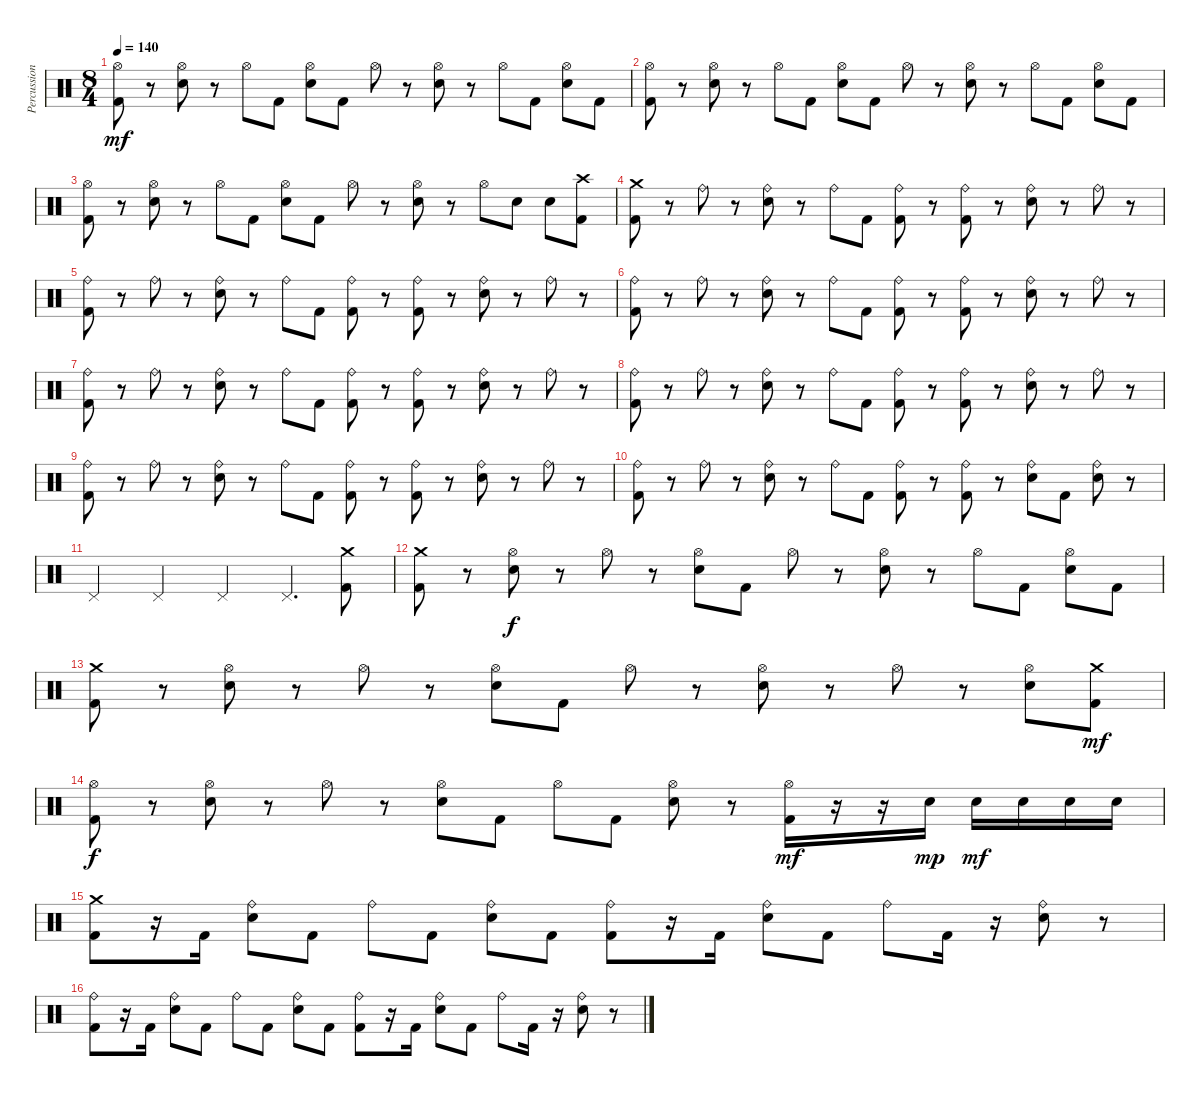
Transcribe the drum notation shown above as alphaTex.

\track ("Percussion" "Percussion") {instrument percussion}
\staff {score}
\articulation defaults
\ts (8 4)
\tempo 140
\clef neutral
\ks c
("Hi-Hat (open)" "Kick (hit) 2").8{dy mf} r.8 ("Hi-Hat (open)" "Electric Snare (hit)").8 r.8 "Hi-Hat (open)".8 "Kick (hit) 2".8 ("Hi-Hat (open)" "Electric Snare (hit)").8 "Kick (hit) 2".8 "Hi-Hat (open)".8 r.8 ("Hi-Hat (open)" "Electric Snare (hit)").8 r.8 "Hi-Hat (open)".8 "Kick (hit) 2".8 ("Hi-Hat (open)" "Electric Snare (hit)").8 "Kick (hit) 2".8 |
("Hi-Hat (open)" "Kick (hit) 2").8 r.8 ("Hi-Hat (open)" "Electric Snare (hit)").8 r.8 "Hi-Hat (open)".8 "Kick (hit) 2".8 ("Hi-Hat (open)" "Electric Snare (hit)").8 "Kick (hit) 2".8 "Hi-Hat (open)".8 r.8 ("Hi-Hat (open)" "Electric Snare (hit)").8 r.8 "Hi-Hat (open)".8 "Kick (hit) 2".8 ("Hi-Hat (open)" "Electric Snare (hit)").8 "Kick (hit) 2".8 |
("Hi-Hat (open)" "Kick (hit) 2").8 r.8 ("Hi-Hat (open)" "Electric Snare (hit)").8 r.8 "Hi-Hat (open)".8 "Kick (hit) 2".8 ("Hi-Hat (open)" "Electric Snare (hit)").8 "Kick (hit) 2".8 "Hi-Hat (open)".8 r.8 ("Hi-Hat (open)" "Electric Snare (hit)").8 r.8 "Hi-Hat (open)".8 "Electric Snare (hit)".8 "Electric Snare (hit)".8 ("Crash high (hit)" "Kick (hit) 2").8 |
("Crash medium (hit)" "Kick (hit) 2").8 r.8 "Ride (bell)".8 r.8 ("Ride (bell)" "Electric Snare (hit)").8 r.8 "Ride (bell)".8 "Kick (hit) 2".8 ("Ride (bell)" "Kick (hit) 2").8 r.8 ("Ride (bell)" "Kick (hit) 2").8 r.8 ("Ride (bell)" "Electric Snare (hit)").8 r.8 "Ride (bell)".8 r.8 |
("Ride (bell)" "Kick (hit) 2").8 r.8 "Ride (bell)".8 r.8 ("Ride (bell)" "Electric Snare (hit)").8 r.8 "Ride (bell)".8 "Kick (hit) 2".8 ("Ride (bell)" "Kick (hit) 2").8 r.8 ("Ride (bell)" "Kick (hit) 2").8 r.8 ("Ride (bell)" "Electric Snare (hit)").8 r.8 "Ride (bell)".8 r.8 |
("Ride (bell)" "Kick (hit) 2").8 r.8 "Ride (bell)".8 r.8 ("Ride (bell)" "Electric Snare (hit)").8 r.8 "Ride (bell)".8 "Kick (hit) 2".8 ("Ride (bell)" "Kick (hit) 2").8 r.8 ("Ride (bell)" "Kick (hit) 2").8 r.8 ("Ride (bell)" "Electric Snare (hit)").8 r.8 "Ride (bell)".8 r.8 |
("Ride (bell)" "Kick (hit) 2").8 r.8 "Ride (bell)".8 r.8 ("Ride (bell)" "Electric Snare (hit)").8 r.8 "Ride (bell)".8 "Kick (hit) 2".8 ("Ride (bell)" "Kick (hit) 2").8 r.8 ("Ride (bell)" "Kick (hit) 2").8 r.8 ("Ride (bell)" "Electric Snare (hit)").8 r.8 "Ride (bell)".8 r.8 |
("Ride (bell)" "Kick (hit) 2").8 r.8 "Ride (bell)".8 r.8 ("Ride (bell)" "Electric Snare (hit)").8 r.8 "Ride (bell)".8 "Kick (hit) 2".8 ("Ride (bell)" "Kick (hit) 2").8 r.8 ("Ride (bell)" "Kick (hit) 2").8 r.8 ("Ride (bell)" "Electric Snare (hit)").8 r.8 "Ride (bell)".8 r.8 |
("Ride (bell)" "Kick (hit) 2").8 r.8 "Ride (bell)".8 r.8 ("Ride (bell)" "Electric Snare (hit)").8 r.8 "Ride (bell)".8 "Kick (hit) 2".8 ("Ride (bell)" "Kick (hit) 2").8 r.8 ("Ride (bell)" "Kick (hit) 2").8 r.8 ("Ride (bell)" "Electric Snare (hit)").8 r.8 "Ride (bell)".8 r.8 |
("Ride (bell)" "Kick (hit) 2").8 r.8 "Ride (bell)".8 r.8 ("Ride (bell)" "Electric Snare (hit)").8 r.8 "Ride (bell)".8 "Kick (hit) 2".8 ("Ride (bell)" "Kick (hit) 2").8 r.8 ("Ride (bell)" "Kick (hit) 2").8 r.8 ("Ride (bell)" "Electric Snare (hit)").8 "Kick (hit) 2".8 ("Ride (bell)" "Electric Snare (hit)").8 r.8 |
"Pedal Hi-Hat (hit)".2 "Pedal Hi-Hat (hit)".2 "Pedal Hi-Hat (hit)".2 "Pedal Hi-Hat (hit)".4{d} ("Crash medium (hit)" "Kick (hit) 2").8 |
("Crash medium (hit)" "Kick (hit) 2").8 r.8 ("Hi-Hat (open)" "Electric Snare (hit)").8{dy f} r.8 "Hi-Hat (open)".8 r.8 ("Hi-Hat (open)" "Electric Snare (hit)").8 "Kick (hit) 2".8 "Hi-Hat (open)".8 r.8 ("Hi-Hat (open)" "Electric Snare (hit)").8 r.8 "Hi-Hat (open)".8 "Kick (hit) 2".8 ("Hi-Hat (open)" "Electric Snare (hit)").8 "Kick (hit) 2".8 |
("Crash medium (hit)" "Kick (hit) 2").8 r.8 ("Hi-Hat (open)" "Electric Snare (hit)").8 r.8 "Hi-Hat (open)".8 r.8 ("Hi-Hat (open)" "Electric Snare (hit)").8 "Kick (hit) 2".8 "Hi-Hat (open)".8 r.8 ("Hi-Hat (open)" "Electric Snare (hit)").8 r.8 "Hi-Hat (open)".8 r.8 ("Hi-Hat (open)" "Electric Snare (hit)").8 ("Crash medium (hit)" "Kick (hit) 2").8{dy mf} |
("Hi-Hat (open)" "Kick (hit) 2").8{dy f} r.8 ("Hi-Hat (open)" "Electric Snare (hit)").8 r.8 "Hi-Hat (open)".8 r.8 ("Hi-Hat (open)" "Electric Snare (hit)").8 "Kick (hit) 2".8 "Hi-Hat (open)".8 "Kick (hit) 2".8 ("Hi-Hat (open)" "Electric Snare (hit)").8 r.8 ("Hi-Hat (open)" "Kick (hit) 2").16{dy mf} r.16 r.16 "Electric Snare (hit)".16{dy mp} "Electric Snare (hit)".16{dy mf} "Electric Snare (hit)".16 "Electric Snare (hit)".16 "Electric Snare (hit)".16 |
("Crash medium (hit)" "Kick (hit) 2").8 r.16 "Kick (hit) 2".16 ("Ride (bell)" "Electric Snare (hit)").8 "Kick (hit) 2".8 "Ride (bell)".8 "Kick (hit) 2".8 ("Ride (bell)" "Electric Snare (hit)").8 "Kick (hit) 2".8 ("Ride (bell)" "Kick (hit) 2").8 r.16 "Kick (hit) 2".16 ("Ride (bell)" "Electric Snare (hit)").8 "Kick (hit) 2".8 "Ride (bell)".8 "Kick (hit) 2".16 r.16 ("Ride (bell)" "Electric Snare (hit)").8 r.8 |
("Ride (bell)" "Kick (hit) 2").8 r.16 "Kick (hit) 2".16 ("Ride (bell)" "Electric Snare (hit)").8 "Kick (hit) 2".8 "Ride (bell)".8 "Kick (hit) 2".8 ("Ride (bell)" "Electric Snare (hit)").8 "Kick (hit) 2".8 ("Ride (bell)" "Kick (hit) 2").8 r.16 "Kick (hit) 2".16 ("Ride (bell)" "Electric Snare (hit)").8 "Kick (hit) 2".8 "Ride (bell)".8 "Kick (hit) 2".16 r.16 ("Ride (bell)" "Electric Snare (hit)").8 r.8
